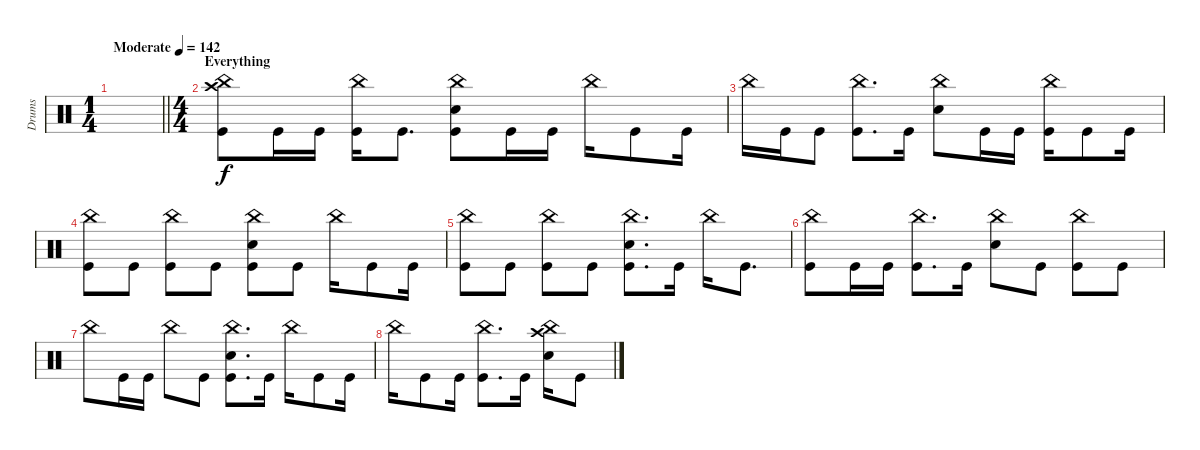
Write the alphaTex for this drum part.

\track ("Drums" "Drums") {instrument percussion}
\staff
\articulation defaults
\ts (1 4)
\tempo (142 "Moderate")
\clef neutral
\barLineRight lightlight
\ks c
|
\ts (4 4)
\section ("" "Everything")
("China (hit)" "Crash high (hit)" "Kick (hit)").8 "Kick (hit)".16 "Kick (hit)".16 ("China (hit)" "Kick (hit)").16 "Kick (hit)".8{d} ("China (hit)" "Electric Snare (hit)" "Kick (hit)").8 "Kick (hit)".16 "Kick (hit)".16 "China (hit)".16 "Kick (hit)".8 "Kick (hit)".16 |
"China (hit)".16 "Kick (hit)".16 "Kick (hit)".8 ("China (hit)" "Kick (hit)").8{d} "Kick (hit)".16 ("China (hit)" "Electric Snare (hit)").8 "Kick (hit)".16 "Kick (hit)".16 ("China (hit)" "Kick (hit)").16 "Kick (hit)".8 "Kick (hit)".16 |
("China (hit)" "Kick (hit)").8 "Kick (hit)".8 ("China (hit)" "Kick (hit)").8 "Kick (hit)".8 ("China (hit)" "Electric Snare (hit)" "Kick (hit)").8 "Kick (hit)".8 "China (hit)".16 "Kick (hit)".8 "Kick (hit)".16 |
("China (hit)" "Kick (hit)").8 "Kick (hit)".8 ("China (hit)" "Kick (hit)").8 "Kick (hit)".8 ("China (hit)" "Electric Snare (hit)" "Kick (hit)").8{d} "Kick (hit)".16 "China (hit)".16 "Kick (hit)".8{d} |
("China (hit)" "Kick (hit)").8 "Kick (hit)".16 "Kick (hit)".16 ("China (hit)" "Kick (hit)").8{d} "Kick (hit)".16 ("China (hit)" "Electric Snare (hit)").8 "Kick (hit)".8 ("China (hit)" "Kick (hit)").8 "Kick (hit)".8 |
"China (hit)".8 "Kick (hit)".16 "Kick (hit)".16 "China (hit)".8 "Kick (hit)".8 ("China (hit)" "Electric Snare (hit)" "Kick (hit)").8{d} "Kick (hit)".16 "China (hit)".16 "Kick (hit)".8 "Kick (hit)".16 |
"China (hit)".16 "Kick (hit)".8 "Kick (hit)".16 ("China (hit)" "Kick (hit)").8{d} "Kick (hit)".16 ("China (hit)" "Crash high (hit)" "Electric Snare (hit)").16 "Kick (hit)".8
